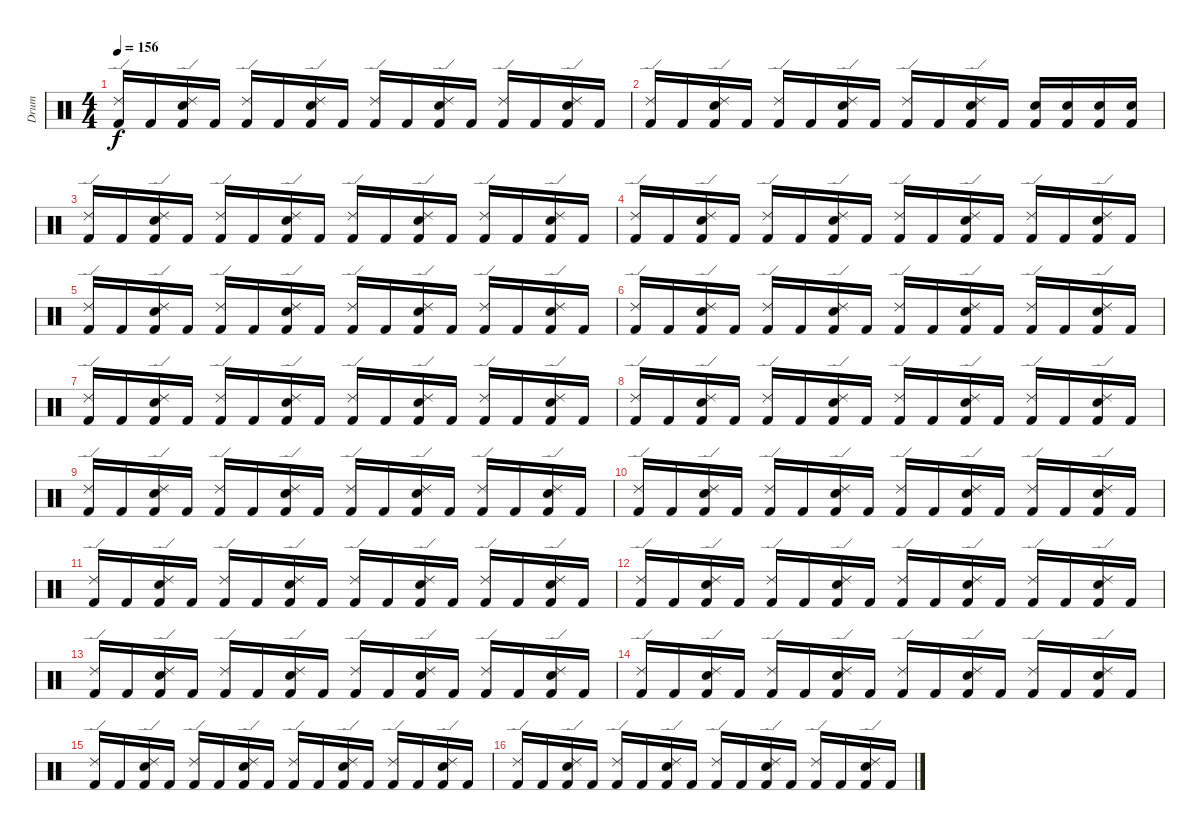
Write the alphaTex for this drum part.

\track (" Drum" " Drum") {instrument percussion}
\staff {score}
\articulation defaults
\ts (4 4)
\tempo 156
\clef neutral
\ks c
("Ride (edge) 2" "Kick (hit) 2").16{dy f} "Kick (hit) 2".16 ("Snare (hit) 2" "Ride (edge) 2" "Kick (hit) 2").16 "Kick (hit) 2".16 ("Ride (edge) 2" "Kick (hit) 2").16 "Kick (hit) 2".16 ("Snare (hit) 2" "Ride (edge) 2" "Kick (hit) 2").16 "Kick (hit) 2".16 ("Ride (edge) 2" "Kick (hit) 2").16 "Kick (hit) 2".16 ("Snare (hit) 2" "Ride (edge) 2" "Kick (hit) 2").16 "Kick (hit) 2".16 ("Ride (edge) 2" "Kick (hit) 2").16 "Kick (hit) 2".16 ("Snare (hit) 2" "Ride (edge) 2" "Kick (hit) 2").16 "Kick (hit) 2".16 |
("Ride (edge) 2" "Kick (hit) 2").16 "Kick (hit) 2".16 ("Snare (hit) 2" "Ride (edge) 2" "Kick (hit) 2").16 "Kick (hit) 2".16 ("Ride (edge) 2" "Kick (hit) 2").16 "Kick (hit) 2".16 ("Snare (hit) 2" "Ride (edge) 2" "Kick (hit) 2").16 "Kick (hit) 2".16 ("Ride (edge) 2" "Kick (hit) 2").16 "Kick (hit) 2".16 ("Ride (edge) 2" "Snare (hit) 2" "Kick (hit) 2").16 "Kick (hit) 2".16 ("Snare (hit) 2" "Kick (hit) 2").16 ("Snare (hit) 2" "Kick (hit) 2").16 ("Snare (hit) 2" "Kick (hit) 2").16 ("Snare (hit) 2" "Kick (hit) 2").16 |
("Ride (edge) 2" "Kick (hit) 2").16 "Kick (hit) 2".16 ("Snare (hit) 2" "Ride (edge) 2" "Kick (hit) 2").16 "Kick (hit) 2".16 ("Ride (edge) 2" "Kick (hit) 2").16 "Kick (hit) 2".16 ("Snare (hit) 2" "Ride (edge) 2" "Kick (hit) 2").16 "Kick (hit) 2".16 ("Ride (edge) 2" "Kick (hit) 2").16 "Kick (hit) 2".16 ("Snare (hit) 2" "Ride (edge) 2" "Kick (hit) 2").16 "Kick (hit) 2".16 ("Ride (edge) 2" "Kick (hit) 2").16 "Kick (hit) 2".16 ("Snare (hit) 2" "Ride (edge) 2" "Kick (hit) 2").16 "Kick (hit) 2".16 |
("Ride (edge) 2" "Kick (hit) 2").16 "Kick (hit) 2".16 ("Snare (hit) 2" "Ride (edge) 2" "Kick (hit) 2").16 "Kick (hit) 2".16 ("Ride (edge) 2" "Kick (hit) 2").16 "Kick (hit) 2".16 ("Snare (hit) 2" "Ride (edge) 2" "Kick (hit) 2").16 "Kick (hit) 2".16 ("Ride (edge) 2" "Kick (hit) 2").16 "Kick (hit) 2".16 ("Snare (hit) 2" "Ride (edge) 2" "Kick (hit) 2").16 "Kick (hit) 2".16 ("Ride (edge) 2" "Kick (hit) 2").16 "Kick (hit) 2".16 ("Snare (hit) 2" "Ride (edge) 2" "Kick (hit) 2").16 "Kick (hit) 2".16 |
("Ride (edge) 2" "Kick (hit) 2").16 "Kick (hit) 2".16 ("Snare (hit) 2" "Ride (edge) 2" "Kick (hit) 2").16 "Kick (hit) 2".16 ("Ride (edge) 2" "Kick (hit) 2").16 "Kick (hit) 2".16 ("Snare (hit) 2" "Ride (edge) 2" "Kick (hit) 2").16 "Kick (hit) 2".16 ("Ride (edge) 2" "Kick (hit) 2").16 "Kick (hit) 2".16 ("Snare (hit) 2" "Ride (edge) 2" "Kick (hit) 2").16 "Kick (hit) 2".16 ("Ride (edge) 2" "Kick (hit) 2").16 "Kick (hit) 2".16 ("Snare (hit) 2" "Ride (edge) 2" "Kick (hit) 2").16 "Kick (hit) 2".16 |
("Ride (edge) 2" "Kick (hit) 2").16 "Kick (hit) 2".16 ("Snare (hit) 2" "Ride (edge) 2" "Kick (hit) 2").16 "Kick (hit) 2".16 ("Ride (edge) 2" "Kick (hit) 2").16 "Kick (hit) 2".16 ("Snare (hit) 2" "Ride (edge) 2" "Kick (hit) 2").16 "Kick (hit) 2".16 ("Ride (edge) 2" "Kick (hit) 2").16 "Kick (hit) 2".16 ("Snare (hit) 2" "Ride (edge) 2" "Kick (hit) 2").16 "Kick (hit) 2".16 ("Ride (edge) 2" "Kick (hit) 2").16 "Kick (hit) 2".16 ("Snare (hit) 2" "Ride (edge) 2" "Kick (hit) 2").16 "Kick (hit) 2".16 |
("Ride (edge) 2" "Kick (hit) 2").16 "Kick (hit) 2".16 ("Snare (hit) 2" "Ride (edge) 2" "Kick (hit) 2").16 "Kick (hit) 2".16 ("Ride (edge) 2" "Kick (hit) 2").16 "Kick (hit) 2".16 ("Snare (hit) 2" "Ride (edge) 2" "Kick (hit) 2").16 "Kick (hit) 2".16 ("Ride (edge) 2" "Kick (hit) 2").16 "Kick (hit) 2".16 ("Snare (hit) 2" "Ride (edge) 2" "Kick (hit) 2").16 "Kick (hit) 2".16 ("Ride (edge) 2" "Kick (hit) 2").16 "Kick (hit) 2".16 ("Snare (hit) 2" "Ride (edge) 2" "Kick (hit) 2").16 "Kick (hit) 2".16 |
("Ride (edge) 2" "Kick (hit) 2").16 "Kick (hit) 2".16 ("Snare (hit) 2" "Ride (edge) 2" "Kick (hit) 2").16 "Kick (hit) 2".16 ("Ride (edge) 2" "Kick (hit) 2").16 "Kick (hit) 2".16 ("Snare (hit) 2" "Ride (edge) 2" "Kick (hit) 2").16 "Kick (hit) 2".16 ("Ride (edge) 2" "Kick (hit) 2").16 "Kick (hit) 2".16 ("Snare (hit) 2" "Ride (edge) 2" "Kick (hit) 2").16 "Kick (hit) 2".16 ("Ride (edge) 2" "Kick (hit) 2").16 "Kick (hit) 2".16 ("Snare (hit) 2" "Ride (edge) 2" "Kick (hit) 2").16 "Kick (hit) 2".16 |
("Ride (edge) 2" "Kick (hit) 2").16 "Kick (hit) 2".16 ("Snare (hit) 2" "Ride (edge) 2" "Kick (hit) 2").16 "Kick (hit) 2".16 ("Ride (edge) 2" "Kick (hit) 2").16 "Kick (hit) 2".16 ("Snare (hit) 2" "Ride (edge) 2" "Kick (hit) 2").16 "Kick (hit) 2".16 ("Ride (edge) 2" "Kick (hit) 2").16 "Kick (hit) 2".16 ("Snare (hit) 2" "Ride (edge) 2" "Kick (hit) 2").16 "Kick (hit) 2".16 ("Ride (edge) 2" "Kick (hit) 2").16 "Kick (hit) 2".16 ("Snare (hit) 2" "Ride (edge) 2" "Kick (hit) 2").16 "Kick (hit) 2".16 |
("Ride (edge) 2" "Kick (hit) 2").16 "Kick (hit) 2".16 ("Snare (hit) 2" "Ride (edge) 2" "Kick (hit) 2").16 "Kick (hit) 2".16 ("Ride (edge) 2" "Kick (hit) 2").16 "Kick (hit) 2".16 ("Snare (hit) 2" "Ride (edge) 2" "Kick (hit) 2").16 "Kick (hit) 2".16 ("Ride (edge) 2" "Kick (hit) 2").16 "Kick (hit) 2".16 ("Snare (hit) 2" "Ride (edge) 2" "Kick (hit) 2").16 "Kick (hit) 2".16 ("Ride (edge) 2" "Kick (hit) 2").16 "Kick (hit) 2".16 ("Snare (hit) 2" "Ride (edge) 2" "Kick (hit) 2").16 "Kick (hit) 2".16 |
("Ride (edge) 2" "Kick (hit) 2").16 "Kick (hit) 2".16 ("Snare (hit) 2" "Ride (edge) 2" "Kick (hit) 2").16 "Kick (hit) 2".16 ("Ride (edge) 2" "Kick (hit) 2").16 "Kick (hit) 2".16 ("Snare (hit) 2" "Ride (edge) 2" "Kick (hit) 2").16 "Kick (hit) 2".16 ("Ride (edge) 2" "Kick (hit) 2").16 "Kick (hit) 2".16 ("Snare (hit) 2" "Ride (edge) 2" "Kick (hit) 2").16 "Kick (hit) 2".16 ("Ride (edge) 2" "Kick (hit) 2").16 "Kick (hit) 2".16 ("Snare (hit) 2" "Ride (edge) 2" "Kick (hit) 2").16 "Kick (hit) 2".16 |
("Ride (edge) 2" "Kick (hit) 2").16 "Kick (hit) 2".16 ("Snare (hit) 2" "Ride (edge) 2" "Kick (hit) 2").16 "Kick (hit) 2".16 ("Ride (edge) 2" "Kick (hit) 2").16 "Kick (hit) 2".16 ("Snare (hit) 2" "Ride (edge) 2" "Kick (hit) 2").16 "Kick (hit) 2".16 ("Ride (edge) 2" "Kick (hit) 2").16 "Kick (hit) 2".16 ("Snare (hit) 2" "Ride (edge) 2" "Kick (hit) 2").16 "Kick (hit) 2".16 ("Ride (edge) 2" "Kick (hit) 2").16 "Kick (hit) 2".16 ("Snare (hit) 2" "Ride (edge) 2" "Kick (hit) 2").16 "Kick (hit) 2".16 |
("Ride (edge) 2" "Kick (hit) 2").16 "Kick (hit) 2".16 ("Snare (hit) 2" "Ride (edge) 2" "Kick (hit) 2").16 "Kick (hit) 2".16 ("Ride (edge) 2" "Kick (hit) 2").16 "Kick (hit) 2".16 ("Snare (hit) 2" "Ride (edge) 2" "Kick (hit) 2").16 "Kick (hit) 2".16 ("Ride (edge) 2" "Kick (hit) 2").16 "Kick (hit) 2".16 ("Snare (hit) 2" "Ride (edge) 2" "Kick (hit) 2").16 "Kick (hit) 2".16 ("Ride (edge) 2" "Kick (hit) 2").16 "Kick (hit) 2".16 ("Snare (hit) 2" "Ride (edge) 2" "Kick (hit) 2").16 "Kick (hit) 2".16 |
("Ride (edge) 2" "Kick (hit) 2").16 "Kick (hit) 2".16 ("Snare (hit) 2" "Ride (edge) 2" "Kick (hit) 2").16 "Kick (hit) 2".16 ("Ride (edge) 2" "Kick (hit) 2").16 "Kick (hit) 2".16 ("Snare (hit) 2" "Ride (edge) 2" "Kick (hit) 2").16 "Kick (hit) 2".16 ("Ride (edge) 2" "Kick (hit) 2").16 "Kick (hit) 2".16 ("Snare (hit) 2" "Ride (edge) 2" "Kick (hit) 2").16 "Kick (hit) 2".16 ("Ride (edge) 2" "Kick (hit) 2").16 "Kick (hit) 2".16 ("Snare (hit) 2" "Ride (edge) 2" "Kick (hit) 2").16 "Kick (hit) 2".16 |
("Ride (edge) 2" "Kick (hit) 2").16 "Kick (hit) 2".16 ("Snare (hit) 2" "Ride (edge) 2" "Kick (hit) 2").16 "Kick (hit) 2".16 ("Ride (edge) 2" "Kick (hit) 2").16 "Kick (hit) 2".16 ("Snare (hit) 2" "Ride (edge) 2" "Kick (hit) 2").16 "Kick (hit) 2".16 ("Ride (edge) 2" "Kick (hit) 2").16 "Kick (hit) 2".16 ("Snare (hit) 2" "Ride (edge) 2" "Kick (hit) 2").16 "Kick (hit) 2".16 ("Ride (edge) 2" "Kick (hit) 2").16 "Kick (hit) 2".16 ("Snare (hit) 2" "Ride (edge) 2" "Kick (hit) 2").16 "Kick (hit) 2".16 |
("Ride (edge) 2" "Kick (hit) 2").16 "Kick (hit) 2".16 ("Snare (hit) 2" "Ride (edge) 2" "Kick (hit) 2").16 "Kick (hit) 2".16 ("Ride (edge) 2" "Kick (hit) 2").16 "Kick (hit) 2".16 ("Snare (hit) 2" "Ride (edge) 2" "Kick (hit) 2").16 "Kick (hit) 2".16 ("Ride (edge) 2" "Kick (hit) 2").16 "Kick (hit) 2".16 ("Snare (hit) 2" "Ride (edge) 2" "Kick (hit) 2").16 "Kick (hit) 2".16 ("Ride (edge) 2" "Kick (hit) 2").16 "Kick (hit) 2".16 ("Snare (hit) 2" "Ride (edge) 2" "Kick (hit) 2").16 "Kick (hit) 2".16
